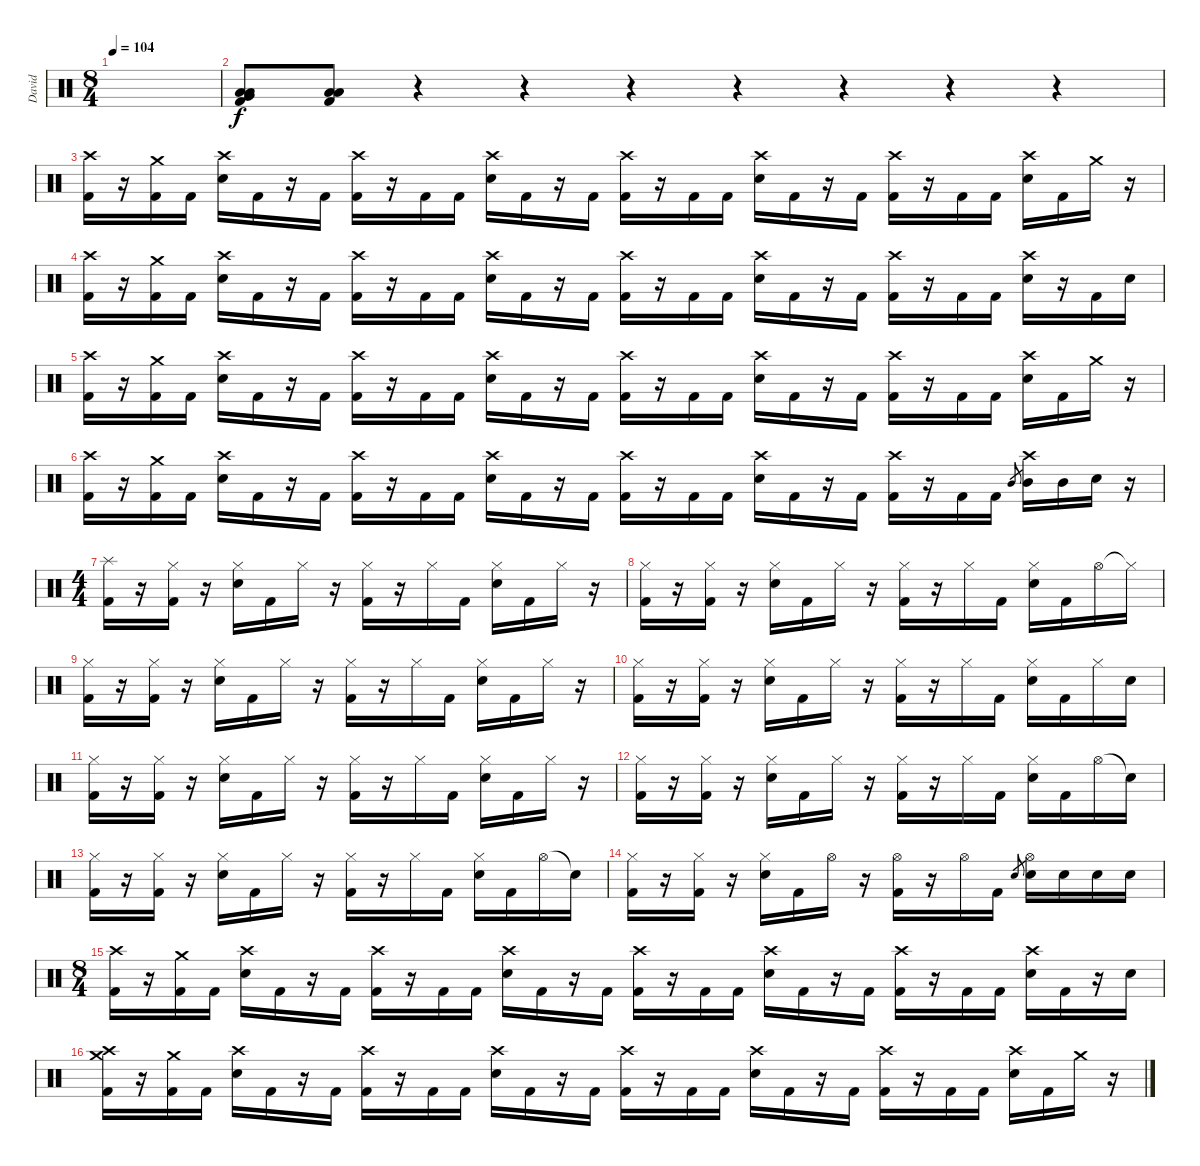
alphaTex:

\track ("David" "David") {instrument percussion}
\staff {score}
\articulation defaults
\ts (8 4)
\tempo 104
\clef neutral
\ks c
|
("Very Low Tom (hit)" "Low Floor Tom (hit)" "Low Floor Tom (hit)" "Kick (hit) 2").8 ("Low Floor Tom (hit)" "Low Floor Tom (hit)" "Kick (hit) 2").8 r.4 r.4 r.4 r.4 r.4 r.4 r.4 |
("Crash high (hit)" "Kick (hit) 2").16 r.16 ("Crash medium (hit)" "Kick (hit) 2").16 "Kick (hit) 2".16 ("Crash high (hit)" "Snare (hit) 2").16 "Kick (hit) 2".16 r.16 "Kick (hit) 2".16 ("Crash high (hit)" "Kick (hit) 2").16 r.16 "Kick (hit) 2".16 "Kick (hit) 2".16 ("Crash high (hit)" "Snare (hit) 2").16 "Kick (hit) 2".16 r.16 "Kick (hit) 2".16 ("Crash high (hit)" "Kick (hit) 2").16 r.16 "Kick (hit) 2".16 "Kick (hit) 2".16 ("Crash high (hit)" "Snare (hit) 2").16 "Kick (hit) 2".16 r.16 "Kick (hit) 2".16 ("Crash high (hit)" "Kick (hit) 2").16 r.16 "Kick (hit) 2".16 "Kick (hit) 2".16 ("Crash high (hit)" "Snare (hit) 2").16 "Kick (hit) 2".16 "Crash medium (hit)".16 r.16 |
("Crash high (hit)" "Kick (hit) 2").16 r.16 ("Crash medium (hit)" "Kick (hit) 2").16 "Kick (hit) 2".16 ("Crash high (hit)" "Snare (hit) 2").16 "Kick (hit) 2".16 r.16 "Kick (hit) 2".16 ("Crash high (hit)" "Kick (hit) 2").16 r.16 "Kick (hit) 2".16 "Kick (hit) 2".16 ("Crash high (hit)" "Snare (hit) 2").16 "Kick (hit) 2".16 r.16 "Kick (hit) 2".16 ("Crash high (hit)" "Kick (hit) 2").16 r.16 "Kick (hit) 2".16 "Kick (hit) 2".16 ("Crash high (hit)" "Snare (hit) 2").16 "Kick (hit) 2".16 r.16 "Kick (hit) 2".16 ("Crash high (hit)" "Kick (hit) 2").16 r.16 "Kick (hit) 2".16 "Kick (hit) 2".16 ("Crash high (hit)" "Snare (hit) 2").16 r.16 "Kick (hit) 2".16 "Snare (hit) 2".16 |
("Crash high (hit)" "Kick (hit) 2").16 r.16 ("Crash medium (hit)" "Kick (hit) 2").16 "Kick (hit) 2".16 ("Crash high (hit)" "Snare (hit) 2").16 "Kick (hit) 2".16 r.16 "Kick (hit) 2".16 ("Crash high (hit)" "Kick (hit) 2").16 r.16 "Kick (hit) 2".16 "Kick (hit) 2".16 ("Crash high (hit)" "Snare (hit) 2").16 "Kick (hit) 2".16 r.16 "Kick (hit) 2".16 ("Crash high (hit)" "Kick (hit) 2").16 r.16 "Kick (hit) 2".16 "Kick (hit) 2".16 ("Crash high (hit)" "Snare (hit) 2").16 "Kick (hit) 2".16 r.16 "Kick (hit) 2".16 ("Crash high (hit)" "Kick (hit) 2").16 r.16 "Kick (hit) 2".16 "Kick (hit) 2".16 ("Crash high (hit)" "Snare (hit) 2").16 "Kick (hit) 2".16 "Crash medium (hit)".16 r.16 |
("Crash high (hit)" "Kick (hit) 2").16 r.16 ("Crash medium (hit)" "Kick (hit) 2").16 "Kick (hit) 2".16 ("Crash high (hit)" "Snare (hit) 2").16 "Kick (hit) 2".16 r.16 "Kick (hit) 2".16 ("Crash high (hit)" "Kick (hit) 2").16 r.16 "Kick (hit) 2".16 "Kick (hit) 2".16 ("Crash high (hit)" "Snare (hit) 2").16 "Kick (hit) 2".16 r.16 "Kick (hit) 2".16 ("Crash high (hit)" "Kick (hit) 2").16 r.16 "Kick (hit) 2".16 "Kick (hit) 2".16 ("Crash high (hit)" "Snare (hit) 2").16 "Kick (hit) 2".16 r.16 "Kick (hit) 2".16 ("Crash high (hit)" "Kick (hit) 2").16 r.16 "Kick (hit) 2".16 "Kick (hit) 2".16 "Mid Tom (hit)".8{gr} ("Crash high (hit)" "Mid Tom (hit)").16 "Mid Tom (hit)".16 "Snare (hit) 2".16 r.16 |
\ts (4 4)
("Splash (hit)" "Kick (hit) 2").16 r.16 ("Hi-Hat (closed)" "Kick (hit) 2").16 r.16 ("Hi-Hat (closed)" "Snare (hit) 2").16 "Kick (hit) 2".16 "Hi-Hat (closed)".16 r.16 ("Hi-Hat (closed)" "Kick (hit) 2").16 r.16 "Hi-Hat (closed)".16 "Kick (hit) 2".16 ("Hi-Hat (closed)" "Snare (hit) 2").16 "Kick (hit) 2".16 "Hi-Hat (closed)".16 r.16 |
("Hi-Hat (closed)" "Kick (hit) 2").16 r.16 ("Hi-Hat (closed)" "Kick (hit) 2").16 r.16 ("Hi-Hat (closed)" "Snare (hit) 2").16 "Kick (hit) 2".16 "Hi-Hat (closed)".16 r.16 ("Hi-Hat (closed)" "Kick (hit) 2").16 r.16 "Hi-Hat (closed)".16 "Kick (hit) 2".16 ("Hi-Hat (closed)" "Snare (hit) 2").16 "Kick (hit) 2".16 "Hi-Hat (open)".16 "Hi-Hat (closed)"{t}.16 |
("Hi-Hat (closed)" "Kick (hit) 2").16 r.16 ("Hi-Hat (closed)" "Kick (hit) 2").16 r.16 ("Hi-Hat (closed)" "Snare (hit) 2").16 "Kick (hit) 2".16 "Hi-Hat (closed)".16 r.16 ("Hi-Hat (closed)" "Kick (hit) 2").16 r.16 "Hi-Hat (closed)".16 "Kick (hit) 2".16 ("Hi-Hat (closed)" "Snare (hit) 2").16 "Kick (hit) 2".16 "Hi-Hat (closed)".16 r.16 |
("Hi-Hat (closed)" "Kick (hit) 2").16 r.16 ("Hi-Hat (closed)" "Kick (hit) 2").16 r.16 ("Hi-Hat (closed)" "Snare (hit) 2").16 "Kick (hit) 2".16 "Hi-Hat (closed)".16 r.16 ("Hi-Hat (closed)" "Kick (hit) 2").16 r.16 "Hi-Hat (closed)".16 "Kick (hit) 2".16 ("Hi-Hat (closed)" "Snare (hit) 2").16 "Kick (hit) 2".16 "Hi-Hat (closed)".16 "Snare (hit) 2".16 |
("Hi-Hat (closed)" "Kick (hit) 2").16 r.16 ("Hi-Hat (closed)" "Kick (hit) 2").16 r.16 ("Hi-Hat (closed)" "Snare (hit) 2").16 "Kick (hit) 2".16 "Hi-Hat (closed)".16 r.16 ("Hi-Hat (closed)" "Kick (hit) 2").16 r.16 "Hi-Hat (closed)".16 "Kick (hit) 2".16 ("Hi-Hat (closed)" "Snare (hit) 2").16 "Kick (hit) 2".16 "Hi-Hat (closed)".16 r.16 |
("Hi-Hat (closed)" "Kick (hit) 2").16 r.16 ("Hi-Hat (closed)" "Kick (hit) 2").16 r.16 ("Hi-Hat (closed)" "Snare (hit) 2").16 "Kick (hit) 2".16 "Hi-Hat (closed)".16 r.16 ("Hi-Hat (closed)" "Kick (hit) 2").16 r.16 "Hi-Hat (closed)".16 "Kick (hit) 2".16 ("Hi-Hat (closed)" "Snare (hit) 2").16 "Kick (hit) 2".16 "Hi-Hat (open)".16 "Snare (hit)"{t}.16 |
("Hi-Hat (closed)" "Kick (hit) 2").16 r.16 ("Hi-Hat (closed)" "Kick (hit) 2").16 r.16 ("Hi-Hat (closed)" "Snare (hit) 2").16 "Kick (hit) 2".16 "Hi-Hat (closed)".16 r.16 ("Hi-Hat (closed)" "Kick (hit) 2").16 r.16 "Hi-Hat (closed)".16 "Kick (hit) 2".16 ("Hi-Hat (closed)" "Snare (hit) 2").16 "Kick (hit) 2".16 "Hi-Hat (open)".16 "Snare (hit)"{t}.16 |
("Hi-Hat (closed)" "Kick (hit) 2").16 r.16 ("Hi-Hat (closed)" "Kick (hit) 2").16 r.16 ("Hi-Hat (closed)" "Snare (hit) 2").16 "Kick (hit) 2".16 "Hi-Hat (open)".16 r.16 ("Hi-Hat (open)" "Kick (hit) 2").16 r.16 "Hi-Hat (open)".16 "Kick (hit) 2".16 "Snare (hit) 2".8{gr} ("Hi-Hat (open)" "Snare (hit) 2").16 "Snare (hit) 2".16 "Snare (hit) 2".16 "Snare (hit) 2".16 |
\ts (8 4)
("Crash high (hit)" "Kick (hit) 2").16 r.16 ("Crash medium (hit)" "Kick (hit) 2").16 "Kick (hit) 2".16 ("Crash high (hit)" "Snare (hit) 2").16 "Kick (hit) 2".16 r.16 "Kick (hit) 2".16 ("Crash high (hit)" "Kick (hit) 2").16 r.16 "Kick (hit) 2".16 "Kick (hit) 2".16 ("Crash high (hit)" "Snare (hit) 2").16 "Kick (hit) 2".16 r.16 "Kick (hit) 2".16 ("Crash high (hit)" "Kick (hit) 2").16 r.16 "Kick (hit) 2".16 "Kick (hit) 2".16 ("Crash high (hit)" "Snare (hit) 2").16 "Kick (hit) 2".16 r.16 "Kick (hit) 2".16 ("Crash high (hit)" "Kick (hit) 2").16 r.16 "Kick (hit) 2".16 "Kick (hit) 2".16 ("Crash high (hit)" "Snare (hit) 2").16 "Kick (hit) 2".16 r.16 "Snare (hit) 2".16 |
("Crash medium (hit)" "Crash high (hit)" "Kick (hit) 2").16 r.16 ("Crash medium (hit)" "Kick (hit) 2").16 "Kick (hit) 2".16 ("Crash high (hit)" "Snare (hit) 2").16 "Kick (hit) 2".16 r.16 "Kick (hit) 2".16 ("Crash high (hit)" "Kick (hit) 2").16 r.16 "Kick (hit) 2".16 "Kick (hit) 2".16 ("Crash high (hit)" "Snare (hit) 2").16 "Kick (hit) 2".16 r.16 "Kick (hit) 2".16 ("Crash high (hit)" "Kick (hit) 2").16 r.16 "Kick (hit) 2".16 "Kick (hit) 2".16 ("Crash high (hit)" "Snare (hit) 2").16 "Kick (hit) 2".16 r.16 "Kick (hit) 2".16 ("Crash high (hit)" "Kick (hit) 2").16 r.16 "Kick (hit) 2".16 "Kick (hit) 2".16 ("Crash high (hit)" "Snare (hit) 2").16 "Kick (hit) 2".16 "Crash medium (hit)".16 r.16
